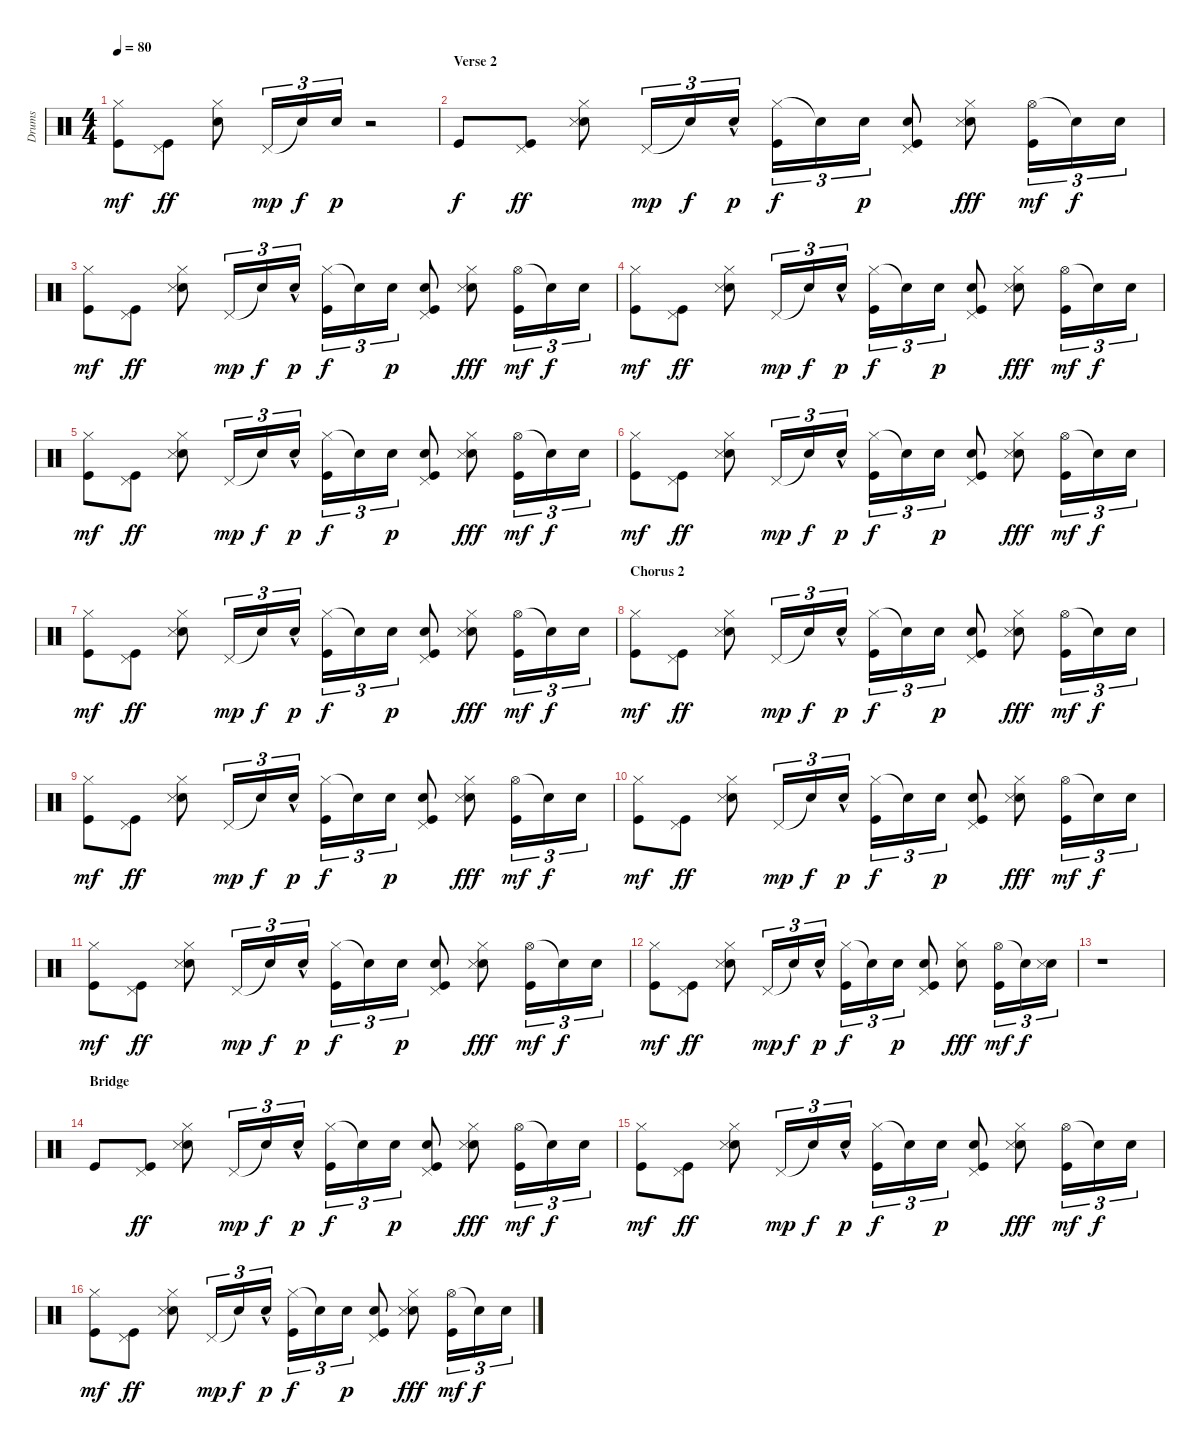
\track ("Drums" "Drums") {instrument percussion}
\staff {score}
\articulation defaults
\ts (4 4)
\tempo 80
\clef neutral
\ks c
("Hi-Hat (closed)" "Kick (hit)").8{dy mf} ("Pedal Hi-Hat (hit)" "Kick (hit)").8{dy ff} ("Electric Snare (hit)" "Hi-Hat (closed)").8 "Pedal Hi-Hat (hit)".16{tu (3 2) dy mp} "Snare (hit)"{t}.16{tu (3 2) dy f} "Electric Snare (hit)".16{tu (3 2) dy p} r.2 |
\section ("" "Verse 2")
"Kick (hit)".8{dy f} ("Pedal Hi-Hat (hit)" "Kick (hit)").8{dy ff} ("Electric Snare (hit)" "Hi-Hat (closed)" "Snare (side stick) 3").8 "Pedal Hi-Hat (hit)".16{tu (3 2) dy mp} "Snare (hit)"{t}.16{tu (3 2) dy f} "Electric Snare (hit)"{hac}.16{tu (3 2) dy p} ("Hi-Hat (closed)" "Kick (hit)").16{tu (3 2) dy f} "Snare (hit)"{t}.16{tu (3 2)} "Electric Snare (hit)".16{tu (3 2) dy p} ("Electric Snare (hit)" "Pedal Hi-Hat (hit)" "Kick (hit)").8 ("Electric Snare (hit)" "Hi-Hat (closed)" "Snare (side stick) 3").8{dy fff} ("Hi-Hat (open)" "Kick (hit)").16{tu (3 2) dy mf} "Snare (hit)"{t}.16{tu (3 2) dy f} "Electric Snare (hit)".16{tu (3 2)} |
("Hi-Hat (closed)" "Kick (hit)").8{dy mf} ("Pedal Hi-Hat (hit)" "Kick (hit)").8{dy ff} ("Electric Snare (hit)" "Hi-Hat (closed)" "Snare (side stick) 3").8 "Pedal Hi-Hat (hit)".16{tu (3 2) dy mp} "Snare (hit)"{t}.16{tu (3 2) dy f} "Electric Snare (hit)"{hac}.16{tu (3 2) dy p} ("Hi-Hat (closed)" "Kick (hit)").16{tu (3 2) dy f} "Snare (hit)"{t}.16{tu (3 2)} "Electric Snare (hit)".16{tu (3 2) dy p} ("Electric Snare (hit)" "Pedal Hi-Hat (hit)" "Kick (hit)").8 ("Electric Snare (hit)" "Hi-Hat (closed)" "Snare (side stick) 3").8{dy fff} ("Hi-Hat (open)" "Kick (hit)").16{tu (3 2) dy mf} "Snare (hit)"{t}.16{tu (3 2) dy f} "Electric Snare (hit)".16{tu (3 2)} |
("Hi-Hat (closed)" "Kick (hit)").8{dy mf} ("Pedal Hi-Hat (hit)" "Kick (hit)").8{dy ff} ("Electric Snare (hit)" "Hi-Hat (closed)" "Snare (side stick) 3").8 "Pedal Hi-Hat (hit)".16{tu (3 2) dy mp} "Snare (hit)"{t}.16{tu (3 2) dy f} "Electric Snare (hit)"{hac}.16{tu (3 2) dy p} ("Hi-Hat (closed)" "Kick (hit)").16{tu (3 2) dy f} "Snare (hit)"{t}.16{tu (3 2)} "Electric Snare (hit)".16{tu (3 2) dy p} ("Electric Snare (hit)" "Pedal Hi-Hat (hit)" "Kick (hit)").8 ("Electric Snare (hit)" "Hi-Hat (closed)" "Snare (side stick) 3").8{dy fff} ("Hi-Hat (open)" "Kick (hit)").16{tu (3 2) dy mf} "Snare (hit)"{t}.16{tu (3 2) dy f} "Electric Snare (hit)".16{tu (3 2)} |
("Hi-Hat (closed)" "Kick (hit)").8{dy mf} ("Pedal Hi-Hat (hit)" "Kick (hit)").8{dy ff} ("Electric Snare (hit)" "Hi-Hat (closed)" "Snare (side stick) 3").8 "Pedal Hi-Hat (hit)".16{tu (3 2) dy mp} "Snare (hit)"{t}.16{tu (3 2) dy f} "Electric Snare (hit)"{hac}.16{tu (3 2) dy p} ("Hi-Hat (closed)" "Kick (hit)").16{tu (3 2) dy f} "Snare (hit)"{t}.16{tu (3 2)} "Electric Snare (hit)".16{tu (3 2) dy p} ("Electric Snare (hit)" "Pedal Hi-Hat (hit)" "Kick (hit)").8 ("Electric Snare (hit)" "Hi-Hat (closed)" "Snare (side stick) 3").8{dy fff} ("Hi-Hat (open)" "Kick (hit)").16{tu (3 2) dy mf} "Snare (hit)"{t}.16{tu (3 2) dy f} "Electric Snare (hit)".16{tu (3 2)} |
("Hi-Hat (closed)" "Kick (hit)").8{dy mf} ("Pedal Hi-Hat (hit)" "Kick (hit)").8{dy ff} ("Electric Snare (hit)" "Hi-Hat (closed)" "Snare (side stick) 3").8 "Pedal Hi-Hat (hit)".16{tu (3 2) dy mp} "Snare (hit)"{t}.16{tu (3 2) dy f} "Electric Snare (hit)"{hac}.16{tu (3 2) dy p} ("Hi-Hat (closed)" "Kick (hit)").16{tu (3 2) dy f} "Snare (hit)"{t}.16{tu (3 2)} "Electric Snare (hit)".16{tu (3 2) dy p} ("Electric Snare (hit)" "Pedal Hi-Hat (hit)" "Kick (hit)").8 ("Electric Snare (hit)" "Hi-Hat (closed)" "Snare (side stick) 3").8{dy fff} ("Hi-Hat (open)" "Kick (hit)").16{tu (3 2) dy mf} "Snare (hit)"{t}.16{tu (3 2) dy f} "Electric Snare (hit)".16{tu (3 2)} |
("Hi-Hat (closed)" "Kick (hit)").8{dy mf} ("Pedal Hi-Hat (hit)" "Kick (hit)").8{dy ff} ("Electric Snare (hit)" "Hi-Hat (closed)" "Snare (side stick) 3").8 "Pedal Hi-Hat (hit)".16{tu (3 2) dy mp} "Snare (hit)"{t}.16{tu (3 2) dy f} "Electric Snare (hit)"{hac}.16{tu (3 2) dy p} ("Hi-Hat (closed)" "Kick (hit)").16{tu (3 2) dy f} "Snare (hit)"{t}.16{tu (3 2)} "Electric Snare (hit)".16{tu (3 2) dy p} ("Electric Snare (hit)" "Pedal Hi-Hat (hit)" "Kick (hit)").8 ("Electric Snare (hit)" "Hi-Hat (closed)" "Snare (side stick) 3").8{dy fff} ("Hi-Hat (open)" "Kick (hit)").16{tu (3 2) dy mf} "Snare (hit)"{t}.16{tu (3 2) dy f} "Electric Snare (hit)".16{tu (3 2)} |
\section ("" "Chorus 2")
("Hi-Hat (closed)" "Kick (hit)").8{dy mf} ("Pedal Hi-Hat (hit)" "Kick (hit)").8{dy ff} ("Electric Snare (hit)" "Hi-Hat (closed)" "Snare (side stick) 3").8 "Pedal Hi-Hat (hit)".16{tu (3 2) dy mp} "Snare (hit)"{t}.16{tu (3 2) dy f} "Electric Snare (hit)"{hac}.16{tu (3 2) dy p} ("Hi-Hat (closed)" "Kick (hit)").16{tu (3 2) dy f} "Snare (hit)"{t}.16{tu (3 2)} "Electric Snare (hit)".16{tu (3 2) dy p} ("Electric Snare (hit)" "Pedal Hi-Hat (hit)" "Kick (hit)").8 ("Electric Snare (hit)" "Hi-Hat (closed)" "Snare (side stick) 3").8{dy fff} ("Hi-Hat (open)" "Kick (hit)").16{tu (3 2) dy mf} "Snare (hit)"{t}.16{tu (3 2) dy f} "Electric Snare (hit)".16{tu (3 2)} |
("Hi-Hat (closed)" "Kick (hit)").8{dy mf} ("Pedal Hi-Hat (hit)" "Kick (hit)").8{dy ff} ("Electric Snare (hit)" "Hi-Hat (closed)" "Snare (side stick) 3").8 "Pedal Hi-Hat (hit)".16{tu (3 2) dy mp} "Snare (hit)"{t}.16{tu (3 2) dy f} "Electric Snare (hit)"{hac}.16{tu (3 2) dy p} ("Hi-Hat (closed)" "Kick (hit)").16{tu (3 2) dy f} "Snare (hit)"{t}.16{tu (3 2)} "Electric Snare (hit)".16{tu (3 2) dy p} ("Electric Snare (hit)" "Pedal Hi-Hat (hit)" "Kick (hit)").8 ("Electric Snare (hit)" "Hi-Hat (closed)" "Snare (side stick) 3").8{dy fff} ("Hi-Hat (open)" "Kick (hit)").16{tu (3 2) dy mf} "Snare (hit)"{t}.16{tu (3 2) dy f} "Electric Snare (hit)".16{tu (3 2)} |
("Hi-Hat (closed)" "Kick (hit)").8{dy mf} ("Pedal Hi-Hat (hit)" "Kick (hit)").8{dy ff} ("Electric Snare (hit)" "Hi-Hat (closed)" "Snare (side stick) 3").8 "Pedal Hi-Hat (hit)".16{tu (3 2) dy mp} "Snare (hit)"{t}.16{tu (3 2) dy f} "Electric Snare (hit)"{hac}.16{tu (3 2) dy p} ("Hi-Hat (closed)" "Kick (hit)").16{tu (3 2) dy f} "Snare (hit)"{t}.16{tu (3 2)} "Electric Snare (hit)".16{tu (3 2) dy p} ("Electric Snare (hit)" "Pedal Hi-Hat (hit)" "Kick (hit)").8 ("Electric Snare (hit)" "Hi-Hat (closed)" "Snare (side stick) 3").8{dy fff} ("Hi-Hat (open)" "Kick (hit)").16{tu (3 2) dy mf} "Snare (hit)"{t}.16{tu (3 2) dy f} "Electric Snare (hit)".16{tu (3 2)} |
("Hi-Hat (closed)" "Kick (hit)").8{dy mf} ("Pedal Hi-Hat (hit)" "Kick (hit)").8{dy ff} ("Electric Snare (hit)" "Hi-Hat (closed)" "Snare (side stick) 3").8 "Pedal Hi-Hat (hit)".16{tu (3 2) dy mp} "Snare (hit)"{t}.16{tu (3 2) dy f} "Electric Snare (hit)"{hac}.16{tu (3 2) dy p} ("Hi-Hat (closed)" "Kick (hit)").16{tu (3 2) dy f} "Snare (hit)"{t}.16{tu (3 2)} "Electric Snare (hit)".16{tu (3 2) dy p} ("Electric Snare (hit)" "Pedal Hi-Hat (hit)" "Kick (hit)").8 ("Electric Snare (hit)" "Hi-Hat (closed)" "Snare (side stick) 3").8{dy fff} ("Hi-Hat (open)" "Kick (hit)").16{tu (3 2) dy mf} "Snare (hit)"{t}.16{tu (3 2) dy f} "Electric Snare (hit)".16{tu (3 2)} |
("Hi-Hat (closed)" "Kick (hit)").8{dy mf} ("Pedal Hi-Hat (hit)" "Kick (hit)").8{dy ff} ("Electric Snare (hit)" "Hi-Hat (closed)" "Snare (side stick) 3").8 "Pedal Hi-Hat (hit)".16{tu (3 2) dy mp} "Snare (hit)"{t}.16{tu (3 2) dy f} "Electric Snare (hit)"{hac}.16{tu (3 2) dy p} ("Hi-Hat (closed)" "Kick (hit)").16{tu (3 2) dy f} "Snare (hit)"{t}.16{tu (3 2)} "Electric Snare (hit)".16{tu (3 2) dy p} ("Electric Snare (hit)" "Pedal Hi-Hat (hit)" "Kick (hit)").8 ("Electric Snare (hit)" "Hi-Hat (closed)").8{dy fff} ("Hi-Hat (open)" "Kick (hit)").16{tu (3 2) dy mf} "Snare (hit)"{t}.16{tu (3 2) dy f} ("Electric Snare (hit)" "Snare (side stick) 3").16{tu (3 2)} |
r.1 |
\section ("" "Bridge")
"Kick (hit)".8 ("Pedal Hi-Hat (hit)" "Kick (hit)").8{dy ff} ("Electric Snare (hit)" "Hi-Hat (closed)" "Snare (side stick) 3").8 "Pedal Hi-Hat (hit)".16{tu (3 2) dy mp} "Snare (hit)"{t}.16{tu (3 2) dy f} "Electric Snare (hit)"{hac}.16{tu (3 2) dy p} ("Hi-Hat (closed)" "Kick (hit)").16{tu (3 2) dy f} "Snare (hit)"{t}.16{tu (3 2)} "Electric Snare (hit)".16{tu (3 2) dy p} ("Electric Snare (hit)" "Pedal Hi-Hat (hit)" "Kick (hit)").8 ("Electric Snare (hit)" "Hi-Hat (closed)" "Snare (side stick) 3").8{dy fff} ("Hi-Hat (open)" "Kick (hit)").16{tu (3 2) dy mf} "Snare (hit)"{t}.16{tu (3 2) dy f} "Electric Snare (hit)".16{tu (3 2)} |
("Hi-Hat (closed)" "Kick (hit)").8{dy mf} ("Pedal Hi-Hat (hit)" "Kick (hit)").8{dy ff} ("Electric Snare (hit)" "Hi-Hat (closed)" "Snare (side stick) 3").8 "Pedal Hi-Hat (hit)".16{tu (3 2) dy mp} "Snare (hit)"{t}.16{tu (3 2) dy f} "Electric Snare (hit)"{hac}.16{tu (3 2) dy p} ("Hi-Hat (closed)" "Kick (hit)").16{tu (3 2) dy f} "Snare (hit)"{t}.16{tu (3 2)} "Electric Snare (hit)".16{tu (3 2) dy p} ("Electric Snare (hit)" "Pedal Hi-Hat (hit)" "Kick (hit)").8 ("Electric Snare (hit)" "Hi-Hat (closed)" "Snare (side stick) 3").8{dy fff} ("Hi-Hat (open)" "Kick (hit)").16{tu (3 2) dy mf} "Snare (hit)"{t}.16{tu (3 2) dy f} "Electric Snare (hit)".16{tu (3 2)} |
("Hi-Hat (closed)" "Kick (hit)").8{dy mf} ("Pedal Hi-Hat (hit)" "Kick (hit)").8{dy ff} ("Electric Snare (hit)" "Hi-Hat (closed)" "Snare (side stick) 3").8 "Pedal Hi-Hat (hit)".16{tu (3 2) dy mp} "Snare (hit)"{t}.16{tu (3 2) dy f} "Electric Snare (hit)"{hac}.16{tu (3 2) dy p} ("Hi-Hat (closed)" "Kick (hit)").16{tu (3 2) dy f} "Snare (hit)"{t}.16{tu (3 2)} "Electric Snare (hit)".16{tu (3 2) dy p} ("Electric Snare (hit)" "Pedal Hi-Hat (hit)" "Kick (hit)").8 ("Electric Snare (hit)" "Hi-Hat (closed)" "Snare (side stick) 3").8{dy fff} ("Hi-Hat (open)" "Kick (hit)").16{tu (3 2) dy mf} "Snare (hit)"{t}.16{tu (3 2) dy f} "Electric Snare (hit)".16{tu (3 2)}
